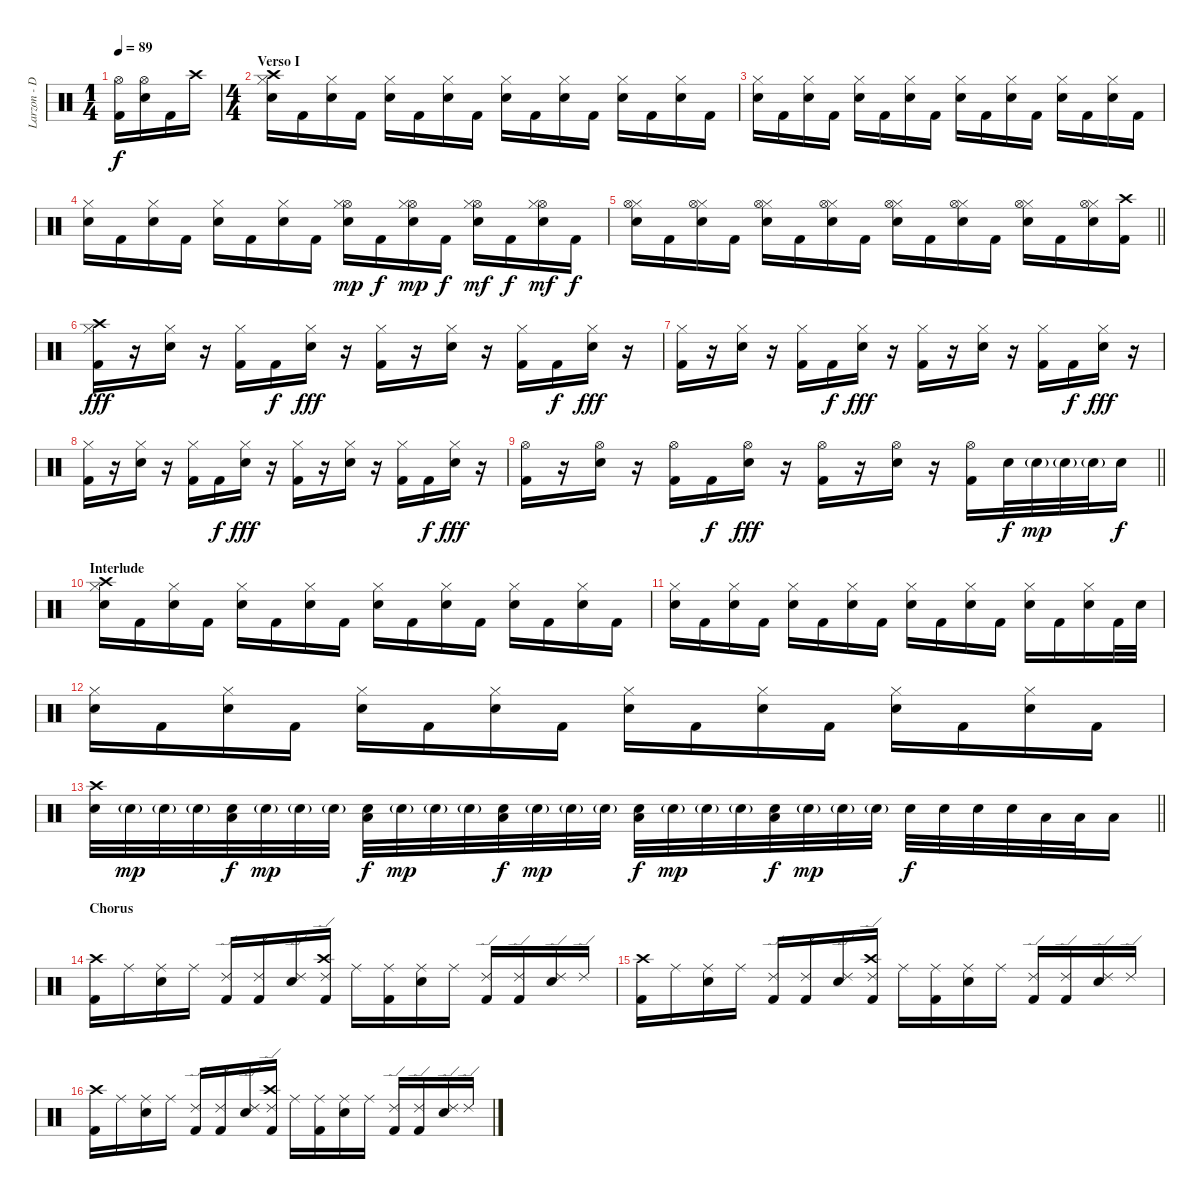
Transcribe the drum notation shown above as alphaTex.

\track ("Larzon - Drums" "Larzon - D") {instrument percussion}
\staff {score}
\articulation defaults
\ts (1 4)
\tempo 89
\clef neutral
\ks c
("Kick (hit) 2" "Hi-Hat (open)").16{dy f} ("Snare (hit) 2" "Hi-Hat (open)").16 "Kick (hit) 2".16 "Crash high (hit)".16 |
\ts (4 4)
\section ("" "Verso I")
("Snare (hit) 2" "Crash high (hit)" "Hi-Hat (closed)").16 "Kick (hit) 2".16 ("Snare (hit) 2" "Hi-Hat (closed)").16 "Kick (hit) 2".16 ("Snare (hit) 2" "Hi-Hat (closed)").16 "Kick (hit) 2".16 ("Snare (hit) 2" "Hi-Hat (closed)").16 "Kick (hit) 2".16 ("Snare (hit) 2" "Hi-Hat (closed)").16 "Kick (hit) 2".16 ("Snare (hit) 2" "Hi-Hat (closed)").16 "Kick (hit) 2".16 ("Snare (hit) 2" "Hi-Hat (closed)").16 "Kick (hit) 2".16 ("Snare (hit) 2" "Hi-Hat (closed)").16 "Kick (hit) 2".16 |
("Snare (hit) 2" "Hi-Hat (closed)").16 "Kick (hit) 2".16 ("Snare (hit) 2" "Hi-Hat (closed)").16 "Kick (hit) 2".16 ("Snare (hit) 2" "Hi-Hat (closed)").16 "Kick (hit) 2".16 ("Snare (hit) 2" "Hi-Hat (closed)").16 "Kick (hit) 2".16 ("Snare (hit) 2" "Hi-Hat (closed)").16 "Kick (hit) 2".16 ("Snare (hit) 2" "Hi-Hat (closed)").16 "Kick (hit) 2".16 ("Snare (hit) 2" "Hi-Hat (closed)").16 "Kick (hit) 2".16 ("Snare (hit) 2" "Hi-Hat (closed)").16 "Kick (hit) 2".16 |
("Snare (hit) 2" "Hi-Hat (closed)").16 "Kick (hit) 2".16 ("Snare (hit) 2" "Hi-Hat (closed)").16 "Kick (hit) 2".16 ("Snare (hit) 2" "Hi-Hat (closed)").16 "Kick (hit) 2".16 ("Snare (hit) 2" "Hi-Hat (closed)").16 "Kick (hit) 2".16 ("Snare (hit) 2" "Hi-Hat (open)" "Hi-Hat (closed)").16{dy mp} "Kick (hit) 2".16{dy f} ("Snare (hit) 2" "Hi-Hat (open)" "Hi-Hat (closed)").16{dy mp} "Kick (hit) 2".16{dy f} ("Snare (hit) 2" "Hi-Hat (open)" "Hi-Hat (closed)").16{dy mf} "Kick (hit) 2".16{dy f} ("Snare (hit) 2" "Hi-Hat (open)" "Hi-Hat (closed)").16{dy mf} "Kick (hit) 2".16{dy f} |
\barLineRight lightlight
("Snare (hit) 2" "Hi-Hat (closed)" "Hi-Hat (open)").16 "Kick (hit) 2".16 ("Snare (hit) 2" "Hi-Hat (closed)" "Hi-Hat (open)").16 "Kick (hit) 2".16 ("Snare (hit) 2" "Hi-Hat (closed)" "Hi-Hat (open)").16 "Kick (hit) 2".16 ("Snare (hit) 2" "Hi-Hat (closed)" "Hi-Hat (open)").16 "Kick (hit) 2".16 ("Snare (hit) 2" "Hi-Hat (closed)" "Hi-Hat (open)").16 "Kick (hit) 2".16 ("Snare (hit) 2" "Hi-Hat (closed)" "Hi-Hat (open)").16 "Kick (hit) 2".16 ("Snare (hit) 2" "Hi-Hat (closed)" "Hi-Hat (open)").16 "Kick (hit) 2".16 ("Snare (hit) 2" "Hi-Hat (closed)" "Hi-Hat (open)").16 ("Kick (hit) 2" "Crash high (hit)").16 |
("Kick (hit) 2" "Crash high (hit)" "Hi-Hat (closed)").16{dy fff} r.16 ("Snare (hit) 2" "Hi-Hat (closed)").16 r.16 ("Kick (hit) 2" "Hi-Hat (closed)").16 "Kick (hit) 2".16{dy f} ("Snare (hit) 2" "Hi-Hat (closed)").16{dy fff} r.16 ("Kick (hit) 2" "Hi-Hat (closed)").16 r.16 ("Snare (hit) 2" "Hi-Hat (closed)").16 r.16 ("Kick (hit) 2" "Hi-Hat (closed)").16 "Kick (hit) 2".16{dy f} ("Snare (hit) 2" "Hi-Hat (closed)").16{dy fff} r.16 |
("Kick (hit) 2" "Hi-Hat (closed)").16 r.16 ("Snare (hit) 2" "Hi-Hat (closed)").16 r.16 ("Kick (hit) 2" "Hi-Hat (closed)").16 "Kick (hit) 2".16{dy f} ("Snare (hit) 2" "Hi-Hat (closed)").16{dy fff} r.16 ("Kick (hit) 2" "Hi-Hat (closed)").16 r.16 ("Snare (hit) 2" "Hi-Hat (closed)").16 r.16 ("Kick (hit) 2" "Hi-Hat (closed)").16 "Kick (hit) 2".16{dy f} ("Snare (hit) 2" "Hi-Hat (closed)").16{dy fff} r.16 |
("Kick (hit) 2" "Hi-Hat (closed)").16 r.16 ("Snare (hit) 2" "Hi-Hat (closed)").16 r.16 ("Kick (hit) 2" "Hi-Hat (closed)").16 "Kick (hit) 2".16{dy f} ("Snare (hit) 2" "Hi-Hat (closed)").16{dy fff} r.16 ("Kick (hit) 2" "Hi-Hat (closed)").16 r.16 ("Snare (hit) 2" "Hi-Hat (closed)").16 r.16 ("Kick (hit) 2" "Hi-Hat (closed)").16 "Kick (hit) 2".16{dy f} ("Snare (hit) 2" "Hi-Hat (closed)").16{dy fff} r.16 |
\barLineRight lightlight
("Kick (hit) 2" "Hi-Hat (open)").16 r.16 ("Snare (hit) 2" "Hi-Hat (open)").16 r.16 ("Kick (hit) 2" "Hi-Hat (open)").16 "Kick (hit) 2".16{dy f} ("Snare (hit) 2" "Hi-Hat (open)").16{dy fff} r.16 ("Kick (hit) 2" "Hi-Hat (open)").16 r.16 ("Snare (hit) 2" "Hi-Hat (open)").16 r.16 ("Kick (hit) 2" "Hi-Hat (open)").16 "Snare (hit) 2".32{dy f} "Snare (hit) 2"{g}.32{dy mp} "Snare (hit) 2"{g}.32 "Snare (hit) 2"{g}.32 "Snare (hit) 2".16{dy f} |
\section ("" "Interlude")
("Snare (hit) 2" "Crash high (hit)" "Hi-Hat (closed)").16 "Kick (hit) 2".16 ("Snare (hit) 2" "Hi-Hat (closed)").16 "Kick (hit) 2".16 ("Snare (hit) 2" "Hi-Hat (closed)").16 "Kick (hit) 2".16 ("Snare (hit) 2" "Hi-Hat (closed)").16 "Kick (hit) 2".16 ("Snare (hit) 2" "Hi-Hat (closed)").16 "Kick (hit) 2".16 ("Snare (hit) 2" "Hi-Hat (closed)").16 "Kick (hit) 2".16 ("Snare (hit) 2" "Hi-Hat (closed)").16 "Kick (hit) 2".16 ("Snare (hit) 2" "Hi-Hat (closed)").16 "Kick (hit) 2".16 |
("Snare (hit) 2" "Hi-Hat (closed)").16 "Kick (hit) 2".16 ("Snare (hit) 2" "Hi-Hat (closed)").16 "Kick (hit) 2".16 ("Snare (hit) 2" "Hi-Hat (closed)").16 "Kick (hit) 2".16 ("Snare (hit) 2" "Hi-Hat (closed)").16 "Kick (hit) 2".16 ("Snare (hit) 2" "Hi-Hat (closed)").16 "Kick (hit) 2".16 ("Snare (hit) 2" "Hi-Hat (closed)").16 "Kick (hit) 2".16 ("Snare (hit) 2" "Hi-Hat (closed)").16 "Kick (hit) 2".16 ("Snare (hit) 2" "Hi-Hat (closed)").16 "Kick (hit) 2".32 "Snare (hit) 2".32 |
("Snare (hit) 2" "Hi-Hat (closed)").16 "Kick (hit) 2".16 ("Snare (hit) 2" "Hi-Hat (closed)").16 "Kick (hit) 2".16 ("Snare (hit) 2" "Hi-Hat (closed)").16 "Kick (hit) 2".16 ("Snare (hit) 2" "Hi-Hat (closed)").16 "Kick (hit) 2".16 ("Snare (hit) 2" "Hi-Hat (closed)").16 "Kick (hit) 2".16 ("Snare (hit) 2" "Hi-Hat (closed)").16 "Kick (hit) 2".16 ("Snare (hit) 2" "Hi-Hat (closed)").16 "Kick (hit) 2".16 ("Snare (hit) 2" "Hi-Hat (closed)").16 "Kick (hit) 2".16 |
\barLineRight lightlight
("Crash high (hit)" "Snare (hit) 2").32 "Snare (hit) 2"{g}.32{dy mp} "Snare (hit) 2"{g}.32 "Snare (hit) 2"{g}.32 ("Low Floor Tom (hit)" "Snare (hit) 2").32{dy f} "Snare (hit) 2"{g}.32{dy mp} "Snare (hit) 2"{g}.32 "Snare (hit) 2"{g}.32 ("Low Floor Tom (hit)" "Snare (hit) 2").32{dy f} "Snare (hit) 2"{g}.32{dy mp} "Snare (hit) 2"{g}.32 "Snare (hit) 2"{g}.32 ("Low Floor Tom (hit)" "Snare (hit) 2").32{dy f} "Snare (hit) 2"{g}.32{dy mp} "Snare (hit) 2"{g}.32 "Snare (hit) 2"{g}.32 ("Low Floor Tom (hit)" "Snare (hit) 2").32{dy f} "Snare (hit) 2"{g}.32{dy mp} "Snare (hit) 2"{g}.32 "Snare (hit) 2"{g}.32 ("Low Floor Tom (hit)" "Snare (hit) 2").32{dy f} "Snare (hit) 2"{g}.32{dy mp} "Snare (hit) 2"{g}.32 "Snare (hit) 2"{g}.32 "Snare (hit) 2".32{dy f} "Snare (hit) 2".32 "Snare (hit) 2".32 "Snare (hit) 2".32 "Low Tom (hit)".32 "Low Tom (hit)".32 "Low Tom (hit)".16 |
\section ("" "Chorus")
("Kick (hit) 2" "Crash high (hit)").16 "Ride (middle)".16 ("Snare (hit) 2" "Ride (middle)").16 "Ride (middle)".16 ("Kick (hit) 2" "Ride (edge) 2").16 ("Kick (hit) 2" "Ride (edge) 2").16 ("Snare (hit) 2" "Ride (edge) 2").16 ("Kick (hit) 2" "Crash high (hit)" "Ride (edge) 2").16 "Ride (middle)".16 ("Kick (hit) 2" "Ride (middle)").16 ("Snare (hit) 2" "Ride (middle)").16 "Ride (middle)".16 ("Kick (hit) 2" "Ride (edge) 2").16 ("Kick (hit) 2" "Ride (edge) 2").16 ("Snare (hit) 2" "Ride (edge) 2").16 "Ride (edge) 2".16 |
("Kick (hit) 2" "Crash high (hit)").16 "Ride (middle)".16 ("Snare (hit) 2" "Ride (middle)").16 "Ride (middle)".16 ("Kick (hit) 2" "Ride (edge) 2").16 ("Kick (hit) 2" "Ride (edge) 2").16 ("Snare (hit) 2" "Ride (edge) 2").16 ("Kick (hit) 2" "Crash high (hit)" "Ride (edge) 2").16 "Ride (middle)".16 ("Kick (hit) 2" "Ride (middle)").16 ("Snare (hit) 2" "Ride (middle)").16 "Ride (middle)".16 ("Kick (hit) 2" "Ride (edge) 2").16 ("Kick (hit) 2" "Ride (edge) 2").16 ("Snare (hit) 2" "Ride (edge) 2").16 "Ride (edge) 2".16 |
("Kick (hit) 2" "Crash high (hit)").16 "Ride (middle)".16 ("Snare (hit) 2" "Ride (middle)").16 "Ride (middle)".16 ("Kick (hit) 2" "Ride (edge) 2").16 ("Kick (hit) 2" "Ride (edge) 2").16 ("Snare (hit) 2" "Ride (edge) 2").16 ("Kick (hit) 2" "Crash high (hit)" "Ride (edge) 2").16 "Ride (middle)".16 ("Kick (hit) 2" "Ride (middle)").16 ("Snare (hit) 2" "Ride (middle)").16 "Ride (middle)".16 ("Kick (hit) 2" "Ride (edge) 2").16 ("Kick (hit) 2" "Ride (edge) 2").16 ("Snare (hit) 2" "Ride (edge) 2").16 "Ride (edge) 2".16
